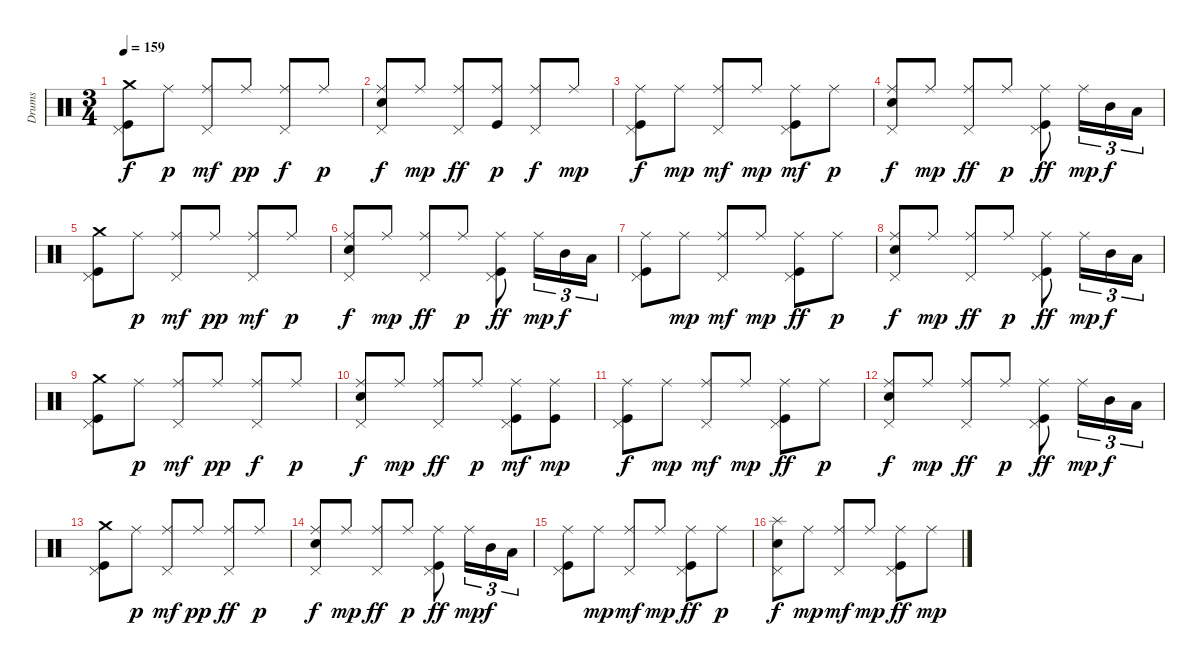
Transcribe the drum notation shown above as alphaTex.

\track ("Drums" "Drums") {instrument percussion}
\staff {score}
\articulation defaults
\ts (3 4)
\tempo 159
\clef neutral
\ks c
("Kick (hit)" "Pedal Hi-Hat (hit)" "Crash medium (hit)").8{dy f} "Ride (middle)".8{dy p} ("Pedal Hi-Hat (hit)" "Ride (middle)").8{dy mf} "Ride (middle)".8{dy pp} ("Pedal Hi-Hat (hit)" "Ride (middle)").8{dy f} "Ride (middle)".8{dy p} |
("Electric Snare (hit)" "Pedal Hi-Hat (hit)" "Ride (middle)").8{dy f} "Ride (middle)".8{dy mp} ("Pedal Hi-Hat (hit)" "Ride (middle)").8{dy ff} ("Kick (hit)" "Ride (middle)").8{dy p} ("Pedal Hi-Hat (hit)" "Ride (middle)").8{dy f} "Ride (middle)".8{dy mp} |
("Kick (hit)" "Pedal Hi-Hat (hit)" "Ride (middle)").8{dy f} "Ride (middle)".8{dy mp} ("Pedal Hi-Hat (hit)" "Ride (middle)").8{dy mf} "Ride (middle)".8{dy mp} ("Kick (hit)" "Pedal Hi-Hat (hit)" "Ride (middle)").8{dy mf} "Ride (middle)".8{dy p} |
("Electric Snare (hit)" "Pedal Hi-Hat (hit)" "Ride (middle)").8{dy f} "Ride (middle)".8{dy mp} ("Pedal Hi-Hat (hit)" "Ride (middle)").8{dy ff} "Ride (middle)".8{dy p} ("Kick (hit)" "Pedal Hi-Hat (hit)" "Ride (middle)").8{dy ff} "Ride (middle)".16{tu (3 2) dy mp} "Mid Tom (hit)".16{tu (3 2) dy f} "Low Tom (hit)".16{tu (3 2)} |
("Kick (hit)" "Pedal Hi-Hat (hit)" "Crash medium (hit)").8 "Ride (middle)".8{dy p} ("Pedal Hi-Hat (hit)" "Ride (middle)").8{dy mf} "Ride (middle)".8{dy pp} ("Pedal Hi-Hat (hit)" "Ride (middle)").8{dy mf} "Ride (middle)".8{dy p} |
("Electric Snare (hit)" "Pedal Hi-Hat (hit)" "Ride (middle)").8{dy f} "Ride (middle)".8{dy mp} ("Pedal Hi-Hat (hit)" "Ride (middle)").8{dy ff} "Ride (middle)".8{dy p} ("Kick (hit)" "Pedal Hi-Hat (hit)" "Ride (middle)").8{dy ff} "Ride (middle)".16{tu (3 2) dy mp} "Mid Tom (hit)".16{tu (3 2) dy f} "Low Tom (hit)".16{tu (3 2)} |
("Kick (hit)" "Pedal Hi-Hat (hit)" "Ride (middle)").8 "Ride (middle)".8{dy mp} ("Pedal Hi-Hat (hit)" "Ride (middle)").8{dy mf} "Ride (middle)".8{dy mp} ("Kick (hit)" "Pedal Hi-Hat (hit)" "Ride (middle)").8{dy ff} "Ride (middle)".8{dy p} |
("Electric Snare (hit)" "Pedal Hi-Hat (hit)" "Ride (middle)").8{dy f} "Ride (middle)".8{dy mp} ("Pedal Hi-Hat (hit)" "Ride (middle)").8{dy ff} "Ride (middle)".8{dy p} ("Kick (hit)" "Pedal Hi-Hat (hit)" "Ride (middle)").8{dy ff} "Ride (middle)".16{tu (3 2) dy mp} "Mid Tom (hit)".16{tu (3 2) dy f} "Low Tom (hit)".16{tu (3 2)} |
("Kick (hit)" "Pedal Hi-Hat (hit)" "Crash medium (hit)").8 "Ride (middle)".8{dy p} ("Pedal Hi-Hat (hit)" "Ride (middle)").8{dy mf} "Ride (middle)".8{dy pp} ("Pedal Hi-Hat (hit)" "Ride (middle)").8{dy f} "Ride (middle)".8{dy p} |
("Electric Snare (hit)" "Pedal Hi-Hat (hit)" "Ride (middle)").8{dy f} "Ride (middle)".8{dy mp} ("Pedal Hi-Hat (hit)" "Ride (middle)").8{dy ff} "Ride (middle)".8{dy p} ("Kick (hit)" "Pedal Hi-Hat (hit)" "Ride (middle)").8{dy mf} ("Kick (hit)" "Ride (middle)").8{dy mp} |
("Kick (hit)" "Pedal Hi-Hat (hit)" "Ride (middle)").8{dy f} "Ride (middle)".8{dy mp} ("Pedal Hi-Hat (hit)" "Ride (middle)").8{dy mf} "Ride (middle)".8{dy mp} ("Kick (hit)" "Pedal Hi-Hat (hit)" "Ride (middle)").8{dy ff} "Ride (middle)".8{dy p} |
("Electric Snare (hit)" "Pedal Hi-Hat (hit)" "Ride (middle)").8{dy f} "Ride (middle)".8{dy mp} ("Pedal Hi-Hat (hit)" "Ride (middle)").8{dy ff} "Ride (middle)".8{dy p} ("Kick (hit)" "Pedal Hi-Hat (hit)" "Ride (middle)").8{dy ff} "Ride (middle)".16{tu (3 2) dy mp} "Mid Tom (hit)".16{tu (3 2) dy f} "Low Tom (hit)".16{tu (3 2)} |
("Kick (hit)" "Pedal Hi-Hat (hit)" "Crash medium (hit)").8 "Ride (middle)".8{dy p} ("Pedal Hi-Hat (hit)" "Ride (middle)").8{dy mf} "Ride (middle)".8{dy pp} ("Pedal Hi-Hat (hit)" "Ride (middle)").8{dy ff} "Ride (middle)".8{dy p} |
("Electric Snare (hit)" "Pedal Hi-Hat (hit)" "Ride (middle)").8{dy f} "Ride (middle)".8{dy mp} ("Pedal Hi-Hat (hit)" "Ride (middle)").8{dy ff} "Ride (middle)".8{dy p} ("Kick (hit)" "Pedal Hi-Hat (hit)" "Ride (middle)").8{dy ff} "Ride (middle)".16{tu (3 2) dy mp} "Mid Tom (hit)".16{tu (3 2) dy f} "Low Tom (hit)".16{tu (3 2)} |
("Kick (hit)" "Pedal Hi-Hat (hit)" "Ride (middle)").8 "Ride (middle)".8{dy mp} ("Pedal Hi-Hat (hit)" "Ride (middle)").8{dy mf} "Ride (middle)".8{dy mp} ("Kick (hit)" "Pedal Hi-Hat (hit)" "Ride (middle)").8{dy ff} "Ride (middle)".8{dy p} |
("Electric Snare (hit)" "Pedal Hi-Hat (hit)" "Splash (hit)").8{dy f} "Ride (middle)".8{dy mp} ("Pedal Hi-Hat (hit)" "Ride (middle)").8{dy mf} "Ride (middle)".8{dy mp} ("Kick (hit)" "Pedal Hi-Hat (hit)" "Ride (middle)").8{dy ff} "Ride (middle)".8{dy mp}
